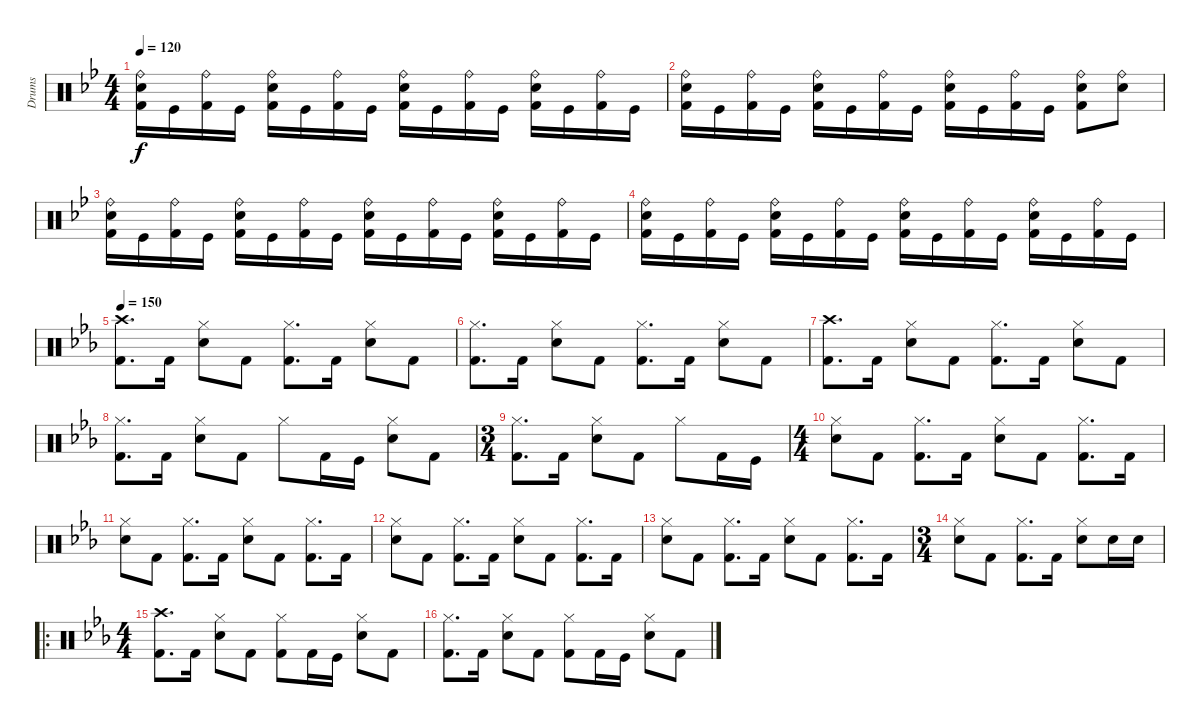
\track ("Drums" "Drums") {instrument percussion}
\staff {score}
\articulation defaults
\ts (4 4)
\tempo 120
\clef neutral
\ks bb
("Ride (bell)" "Electric Snare (hit)" "Kick (hit) 2").16{dy f} "Kick (hit)".16 ("Ride (bell)" "Kick (hit) 2").16 "Kick (hit)".16 ("Ride (bell)" "Electric Snare (hit)" "Kick (hit) 2").16 "Kick (hit)".16 ("Ride (bell)" "Kick (hit) 2").16 "Kick (hit)".16 ("Ride (bell)" "Electric Snare (hit)" "Kick (hit) 2").16 "Kick (hit)".16 ("Ride (bell)" "Kick (hit) 2").16 "Kick (hit)".16 ("Ride (bell)" "Electric Snare (hit)" "Kick (hit) 2").16 "Kick (hit)".16 ("Ride (bell)" "Kick (hit) 2").16 "Kick (hit)".16 |
("Ride (bell)" "Electric Snare (hit)" "Kick (hit) 2").16 "Kick (hit)".16 ("Ride (bell)" "Kick (hit) 2").16 "Kick (hit)".16 ("Ride (bell)" "Electric Snare (hit)" "Kick (hit) 2").16 "Kick (hit)".16 ("Ride (bell)" "Kick (hit) 2").16 "Kick (hit)".16 ("Ride (bell)" "Electric Snare (hit)" "Kick (hit) 2").16 "Kick (hit)".16 ("Ride (bell)" "Kick (hit) 2").16 "Kick (hit)".16 ("Ride (bell)" "Electric Snare (hit)" "Kick (hit) 2").8 ("Ride (bell)" "Electric Snare (hit)").8 |
("Ride (bell)" "Electric Snare (hit)" "Kick (hit) 2").16 "Kick (hit)".16 ("Ride (bell)" "Kick (hit) 2").16 "Kick (hit)".16 ("Ride (bell)" "Electric Snare (hit)" "Kick (hit) 2").16 "Kick (hit)".16 ("Ride (bell)" "Kick (hit) 2").16 "Kick (hit)".16 ("Ride (bell)" "Electric Snare (hit)" "Kick (hit) 2").16 "Kick (hit)".16 ("Ride (bell)" "Kick (hit) 2").16 "Kick (hit)".16 ("Ride (bell)" "Electric Snare (hit)" "Kick (hit) 2").16 "Kick (hit)".16 ("Ride (bell)" "Kick (hit) 2").16 "Kick (hit)".16 |
("Ride (bell)" "Electric Snare (hit)" "Kick (hit) 2").16 "Kick (hit)".16 ("Ride (bell)" "Kick (hit) 2").16 "Kick (hit)".16 ("Ride (bell)" "Electric Snare (hit)" "Kick (hit) 2").16 "Kick (hit)".16 ("Ride (bell)" "Kick (hit) 2").16 "Kick (hit)".16 ("Ride (bell)" "Electric Snare (hit)" "Kick (hit) 2").16 "Kick (hit)".16 ("Ride (bell)" "Kick (hit) 2").16 "Kick (hit)".16 ("Ride (bell)" "Electric Snare (hit)" "Kick (hit) 2").16 "Kick (hit)".16 ("Ride (bell)" "Kick (hit) 2").16 "Kick (hit)".16 |
\tempo 150
\ks eb
("Crash high (hit)" "Kick (hit) 2").8{d} "Kick (hit) 2".16 ("Hi-Hat (closed)" "Electric Snare (hit)").8 "Kick (hit) 2".8 ("Hi-Hat (closed)" "Kick (hit) 2").8{d} "Kick (hit) 2".16 ("Hi-Hat (closed)" "Electric Snare (hit)").8 "Kick (hit) 2".8 |
("Hi-Hat (closed)" "Kick (hit) 2").8{d} "Kick (hit) 2".16 ("Hi-Hat (closed)" "Electric Snare (hit)").8 "Kick (hit) 2".8 ("Hi-Hat (closed)" "Kick (hit) 2").8{d} "Kick (hit) 2".16 ("Hi-Hat (closed)" "Electric Snare (hit)").8 "Kick (hit) 2".8 |
("Crash high (hit)" "Kick (hit) 2").8{d} "Kick (hit) 2".16 ("Hi-Hat (closed)" "Electric Snare (hit)").8 "Kick (hit) 2".8 ("Hi-Hat (closed)" "Kick (hit) 2").8{d} "Kick (hit) 2".16 ("Hi-Hat (closed)" "Electric Snare (hit)").8 "Kick (hit) 2".8 |
("Hi-Hat (closed)" "Kick (hit) 2").8{d} "Kick (hit) 2".16 ("Hi-Hat (closed)" "Electric Snare (hit)").8 "Kick (hit) 2".8 "Hi-Hat (closed)".8 "Kick (hit) 2".16 "Kick (hit)".16 ("Hi-Hat (closed)" "Electric Snare (hit)").8 "Kick (hit) 2".8 |
\ts (3 4)
("Hi-Hat (closed)" "Kick (hit) 2").8{d} "Kick (hit) 2".16 ("Hi-Hat (closed)" "Electric Snare (hit)").8 "Kick (hit) 2".8 "Hi-Hat (closed)".8 "Kick (hit) 2".16 "Kick (hit)".16 |
\ts (4 4)
("Hi-Hat (closed)" "Electric Snare (hit)").8 "Kick (hit) 2".8 ("Hi-Hat (closed)" "Kick (hit) 2").8{d} "Kick (hit) 2".16 ("Hi-Hat (closed)" "Electric Snare (hit)").8 "Kick (hit) 2".8 ("Hi-Hat (closed)" "Kick (hit) 2").8{d} "Kick (hit) 2".16 |
("Hi-Hat (closed)" "Electric Snare (hit)").8 "Kick (hit) 2".8 ("Hi-Hat (closed)" "Kick (hit) 2").8{d} "Kick (hit) 2".16 ("Hi-Hat (closed)" "Electric Snare (hit)").8 "Kick (hit) 2".8 ("Hi-Hat (closed)" "Kick (hit) 2").8{d} "Kick (hit) 2".16 |
("Hi-Hat (closed)" "Electric Snare (hit)").8 "Kick (hit) 2".8 ("Hi-Hat (closed)" "Kick (hit) 2").8{d} "Kick (hit) 2".16 ("Hi-Hat (closed)" "Electric Snare (hit)").8 "Kick (hit) 2".8 ("Hi-Hat (closed)" "Kick (hit) 2").8{d} "Kick (hit) 2".16 |
("Hi-Hat (closed)" "Electric Snare (hit)").8 "Kick (hit) 2".8 ("Hi-Hat (closed)" "Kick (hit) 2").8{d} "Kick (hit) 2".16 ("Hi-Hat (closed)" "Electric Snare (hit)").8 "Kick (hit) 2".8 ("Hi-Hat (closed)" "Kick (hit) 2").8{d} "Kick (hit) 2".16 |
\ts (3 4)
("Hi-Hat (closed)" "Electric Snare (hit)").8 "Kick (hit) 2".8 ("Hi-Hat (closed)" "Kick (hit) 2").8{d} "Kick (hit) 2".16 ("Hi-Hat (closed)" "Electric Snare (hit)").8 "Electric Snare (hit)".16 "Electric Snare (hit)".16 |
\ro
\ts (4 4)
("Crash high (hit)" "Kick (hit) 2").8{d} "Kick (hit) 2".16 ("Hi-Hat (closed)" "Electric Snare (hit)").8 "Kick (hit) 2".8 ("Hi-Hat (closed)" "Kick (hit) 2").8 "Kick (hit) 2".16 "Kick (hit)".16 ("Hi-Hat (closed)" "Electric Snare (hit)").8 "Kick (hit) 2".8 |
("Hi-Hat (closed)" "Kick (hit) 2").8{d} "Kick (hit) 2".16 ("Hi-Hat (closed)" "Electric Snare (hit)").8 "Kick (hit) 2".8 ("Hi-Hat (closed)" "Kick (hit) 2").8 "Kick (hit) 2".16 "Kick (hit)".16 ("Hi-Hat (closed)" "Electric Snare (hit)").8 "Kick (hit) 2".8
